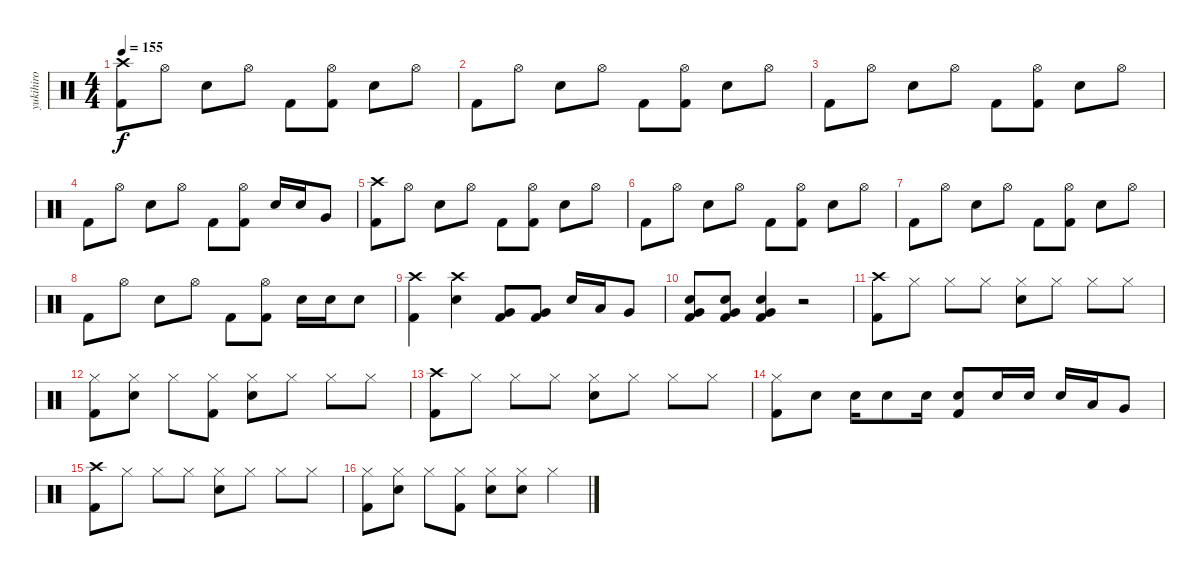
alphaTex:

\track ("yukihiro" "yukihiro") {instrument percussion}
\staff {score}
\articulation defaults
\ts (4 4)
\tempo 155
\clef neutral
\ks c
("Crash high (hit)" "Kick (hit) 2").8{dy f} "Hi-Hat (open)".8 "Snare (hit) 2".8 "Hi-Hat (open)".8 "Kick (hit) 2".8 ("Hi-Hat (open)" "Kick (hit) 2").8 "Snare (hit) 2".8 "Hi-Hat (open)".8 |
"Kick (hit) 2".8 "Hi-Hat (open)".8 "Snare (hit) 2".8 "Hi-Hat (open)".8 "Kick (hit) 2".8 ("Hi-Hat (open)" "Kick (hit) 2").8 "Snare (hit) 2".8 "Hi-Hat (open)".8 |
"Kick (hit) 2".8 "Hi-Hat (open)".8 "Snare (hit) 2".8 "Hi-Hat (open)".8 "Kick (hit) 2".8 ("Hi-Hat (open)" "Kick (hit) 2").8 "Snare (hit) 2".8 "Hi-Hat (open)".8 |
"Kick (hit) 2".8 "Hi-Hat (open)".8 "Snare (hit) 2".8 "Hi-Hat (open)".8 "Kick (hit) 2".8 ("Hi-Hat (open)" "Kick (hit) 2").8 "Snare (hit) 2".16 "Snare (hit) 2".16 "Very Low Tom (hit)".8 |
("Crash high (hit)" "Kick (hit) 2").8 "Hi-Hat (open)".8 "Snare (hit) 2".8 "Hi-Hat (open)".8 "Kick (hit) 2".8 ("Hi-Hat (open)" "Kick (hit) 2").8 "Snare (hit) 2".8 "Hi-Hat (open)".8 |
"Kick (hit) 2".8 "Hi-Hat (open)".8 "Snare (hit) 2".8 "Hi-Hat (open)".8 "Kick (hit) 2".8 ("Hi-Hat (open)" "Kick (hit) 2").8 "Snare (hit) 2".8 "Hi-Hat (open)".8 |
"Kick (hit) 2".8 "Hi-Hat (open)".8 "Snare (hit) 2".8 "Hi-Hat (open)".8 "Kick (hit) 2".8 ("Hi-Hat (open)" "Kick (hit) 2").8 "Snare (hit) 2".8 "Hi-Hat (open)".8 |
"Kick (hit) 2".8 "Hi-Hat (open)".8 "Snare (hit) 2".8 "Hi-Hat (open)".8 "Kick (hit) 2".8 ("Hi-Hat (open)" "Kick (hit) 2").8 "Snare (hit) 2".16 "Snare (hit) 2".16 "Snare (hit) 2".8 |
("Crash high (hit)" "Kick (hit) 2").4 ("Crash high (hit)" "Snare (hit) 2").4 ("Very Low Tom (hit)" "Kick (hit) 2").8 ("Very Low Tom (hit)" "Kick (hit) 2").8 "Snare (hit) 2".16 "Low Floor Tom (hit)".16 "Very Low Tom (hit)".8 |
("Very Low Tom (hit)" "Snare (hit) 2" "Kick (hit) 2").8 ("Very Low Tom (hit)" "Snare (hit) 2" "Kick (hit) 2").8 ("Very Low Tom (hit)" "Snare (hit) 2" "Kick (hit) 2").4 r.2 |
("Crash high (hit)" "Kick (hit) 2").8 "Hi-Hat (closed)".8 "Hi-Hat (closed)".8 "Hi-Hat (closed)".8 ("Hi-Hat (closed)" "Snare (hit) 2").8 "Hi-Hat (closed)".8 "Hi-Hat (closed)".8 "Hi-Hat (closed)".8 |
("Hi-Hat (closed)" "Kick (hit) 2").8 ("Hi-Hat (closed)" "Snare (hit) 2").8 "Hi-Hat (closed)".8 ("Hi-Hat (closed)" "Kick (hit) 2").8 ("Hi-Hat (closed)" "Snare (hit) 2").8 "Hi-Hat (closed)".8 "Hi-Hat (closed)".8 "Hi-Hat (closed)".8 |
("Crash high (hit)" "Kick (hit) 2").8 "Hi-Hat (closed)".8 "Hi-Hat (closed)".8 "Hi-Hat (closed)".8 ("Hi-Hat (closed)" "Snare (hit) 2").8 "Hi-Hat (closed)".8 "Hi-Hat (closed)".8 "Hi-Hat (closed)".8 |
("Hi-Hat (closed)" "Kick (hit) 2").8 "Snare (hit) 2".8 "Snare (hit) 2".16 "Snare (hit) 2".8 "Snare (hit) 2".16 ("Snare (hit) 2" "Kick (hit) 2").8 "Snare (hit) 2".16 "Snare (hit) 2".16 "Snare (hit) 2".16 "Low Tom (hit)".16 "Very Low Tom (hit)".8 |
("Crash high (hit)" "Kick (hit) 2").8 "Hi-Hat (closed)".8 "Hi-Hat (closed)".8 "Hi-Hat (closed)".8 ("Hi-Hat (closed)" "Snare (hit) 2").8 "Hi-Hat (closed)".8 "Hi-Hat (closed)".8 "Hi-Hat (closed)".8 |
("Hi-Hat (closed)" "Kick (hit) 2").8 ("Hi-Hat (closed)" "Snare (hit) 2").8 "Hi-Hat (closed)".8 ("Hi-Hat (closed)" "Kick (hit) 2").8 ("Hi-Hat (closed)" "Snare (hit) 2").8 ("Hi-Hat (closed)" "Snare (hit) 2").8 "Hi-Hat (closed)".4
